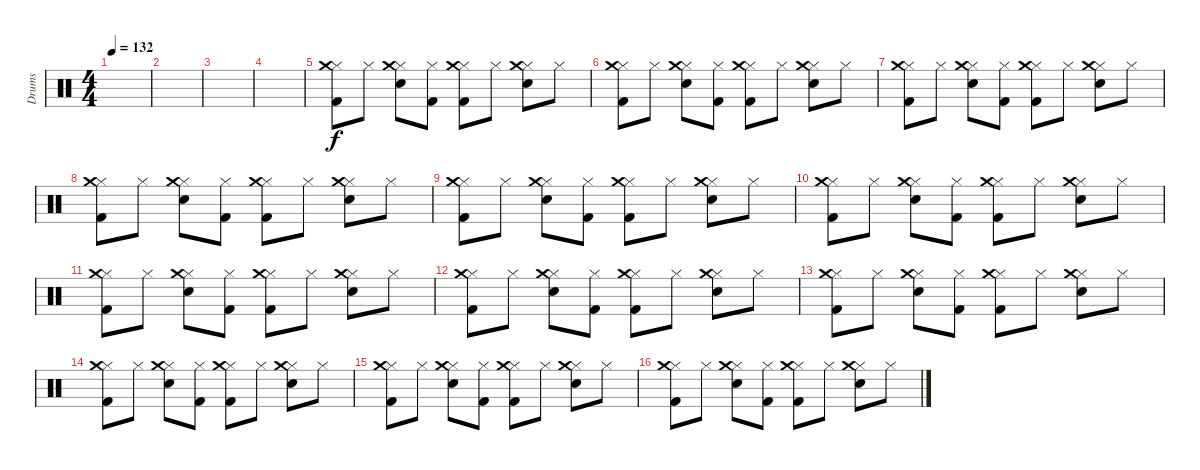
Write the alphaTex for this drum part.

\track ("Drums" "Drums") {instrument percussion}
\staff {score}
\articulation defaults
\ts (4 4)
\tempo 132
\clef neutral
\ks c
|
|
|
|
("Hi-Hat (closed)" "Crash medium (hit)" "Kick (hit) 2").8 "Hi-Hat (closed)".8 ("Hi-Hat (closed)" "Crash medium (hit)" "Snare (hit) 2").8 ("Hi-Hat (closed)" "Kick (hit) 2").8 ("Hi-Hat (closed)" "Crash medium (hit)" "Kick (hit) 2").8 "Hi-Hat (closed)".8 ("Hi-Hat (closed)" "Crash medium (hit)" "Snare (hit) 2").8 "Hi-Hat (closed)".8 |
("Hi-Hat (closed)" "Crash medium (hit)" "Kick (hit) 2").8 "Hi-Hat (closed)".8 ("Hi-Hat (closed)" "Crash medium (hit)" "Snare (hit) 2").8 ("Hi-Hat (closed)" "Kick (hit) 2").8 ("Hi-Hat (closed)" "Crash medium (hit)" "Kick (hit) 2").8 "Hi-Hat (closed)".8 ("Hi-Hat (closed)" "Crash medium (hit)" "Snare (hit) 2").8 "Hi-Hat (closed)".8 |
("Hi-Hat (closed)" "Crash medium (hit)" "Kick (hit) 2").8 "Hi-Hat (closed)".8 ("Hi-Hat (closed)" "Crash medium (hit)" "Snare (hit) 2").8 ("Hi-Hat (closed)" "Kick (hit) 2").8 ("Hi-Hat (closed)" "Crash medium (hit)" "Kick (hit) 2").8 "Hi-Hat (closed)".8 ("Hi-Hat (closed)" "Crash medium (hit)" "Snare (hit) 2").8 "Hi-Hat (closed)".8 |
("Hi-Hat (closed)" "Crash medium (hit)" "Kick (hit) 2").8 "Hi-Hat (closed)".8 ("Hi-Hat (closed)" "Crash medium (hit)" "Snare (hit) 2").8 ("Hi-Hat (closed)" "Kick (hit) 2").8 ("Hi-Hat (closed)" "Crash medium (hit)" "Kick (hit) 2").8 "Hi-Hat (closed)".8 ("Hi-Hat (closed)" "Crash medium (hit)" "Snare (hit) 2").8 "Hi-Hat (closed)".8 |
("Hi-Hat (closed)" "Crash medium (hit)" "Kick (hit) 2").8 "Hi-Hat (closed)".8 ("Hi-Hat (closed)" "Crash medium (hit)" "Snare (hit) 2").8 ("Hi-Hat (closed)" "Kick (hit) 2").8 ("Hi-Hat (closed)" "Crash medium (hit)" "Kick (hit) 2").8 "Hi-Hat (closed)".8 ("Hi-Hat (closed)" "Crash medium (hit)" "Snare (hit) 2").8 "Hi-Hat (closed)".8 |
("Hi-Hat (closed)" "Crash medium (hit)" "Kick (hit) 2").8 "Hi-Hat (closed)".8 ("Hi-Hat (closed)" "Crash medium (hit)" "Snare (hit) 2").8 ("Hi-Hat (closed)" "Kick (hit) 2").8 ("Hi-Hat (closed)" "Crash medium (hit)" "Kick (hit) 2").8 "Hi-Hat (closed)".8 ("Hi-Hat (closed)" "Crash medium (hit)" "Snare (hit) 2").8 "Hi-Hat (closed)".8 |
("Hi-Hat (closed)" "Crash medium (hit)" "Kick (hit) 2").8 "Hi-Hat (closed)".8 ("Hi-Hat (closed)" "Crash medium (hit)" "Snare (hit) 2").8 ("Hi-Hat (closed)" "Kick (hit) 2").8 ("Hi-Hat (closed)" "Crash medium (hit)" "Kick (hit) 2").8 "Hi-Hat (closed)".8 ("Hi-Hat (closed)" "Crash medium (hit)" "Snare (hit) 2").8 "Hi-Hat (closed)".8 |
("Hi-Hat (closed)" "Crash medium (hit)" "Kick (hit) 2").8 "Hi-Hat (closed)".8 ("Hi-Hat (closed)" "Crash medium (hit)" "Snare (hit) 2").8 ("Hi-Hat (closed)" "Kick (hit) 2").8 ("Hi-Hat (closed)" "Crash medium (hit)" "Kick (hit) 2").8 "Hi-Hat (closed)".8 ("Hi-Hat (closed)" "Crash medium (hit)" "Snare (hit) 2").8 "Hi-Hat (closed)".8 |
("Hi-Hat (closed)" "Crash medium (hit)" "Kick (hit) 2").8 "Hi-Hat (closed)".8 ("Hi-Hat (closed)" "Crash medium (hit)" "Snare (hit) 2").8 ("Hi-Hat (closed)" "Kick (hit) 2").8 ("Hi-Hat (closed)" "Crash medium (hit)" "Kick (hit) 2").8 "Hi-Hat (closed)".8 ("Hi-Hat (closed)" "Crash medium (hit)" "Snare (hit) 2").8 "Hi-Hat (closed)".8 |
("Hi-Hat (closed)" "Crash medium (hit)" "Kick (hit) 2").8 "Hi-Hat (closed)".8 ("Hi-Hat (closed)" "Crash medium (hit)" "Snare (hit) 2").8 ("Hi-Hat (closed)" "Kick (hit) 2").8 ("Hi-Hat (closed)" "Crash medium (hit)" "Kick (hit) 2").8 "Hi-Hat (closed)".8 ("Hi-Hat (closed)" "Crash medium (hit)" "Snare (hit) 2").8 "Hi-Hat (closed)".8 |
("Hi-Hat (closed)" "Crash medium (hit)" "Kick (hit) 2").8 "Hi-Hat (closed)".8 ("Hi-Hat (closed)" "Crash medium (hit)" "Snare (hit) 2").8 ("Hi-Hat (closed)" "Kick (hit) 2").8 ("Hi-Hat (closed)" "Crash medium (hit)" "Kick (hit) 2").8 "Hi-Hat (closed)".8 ("Hi-Hat (closed)" "Crash medium (hit)" "Snare (hit) 2").8 "Hi-Hat (closed)".8 |
("Hi-Hat (closed)" "Crash medium (hit)" "Kick (hit) 2").8 "Hi-Hat (closed)".8 ("Hi-Hat (closed)" "Crash medium (hit)" "Snare (hit) 2").8 ("Hi-Hat (closed)" "Kick (hit) 2").8 ("Hi-Hat (closed)" "Crash medium (hit)" "Kick (hit) 2").8 "Hi-Hat (closed)".8 ("Hi-Hat (closed)" "Crash medium (hit)" "Snare (hit) 2").8 "Hi-Hat (closed)".8
